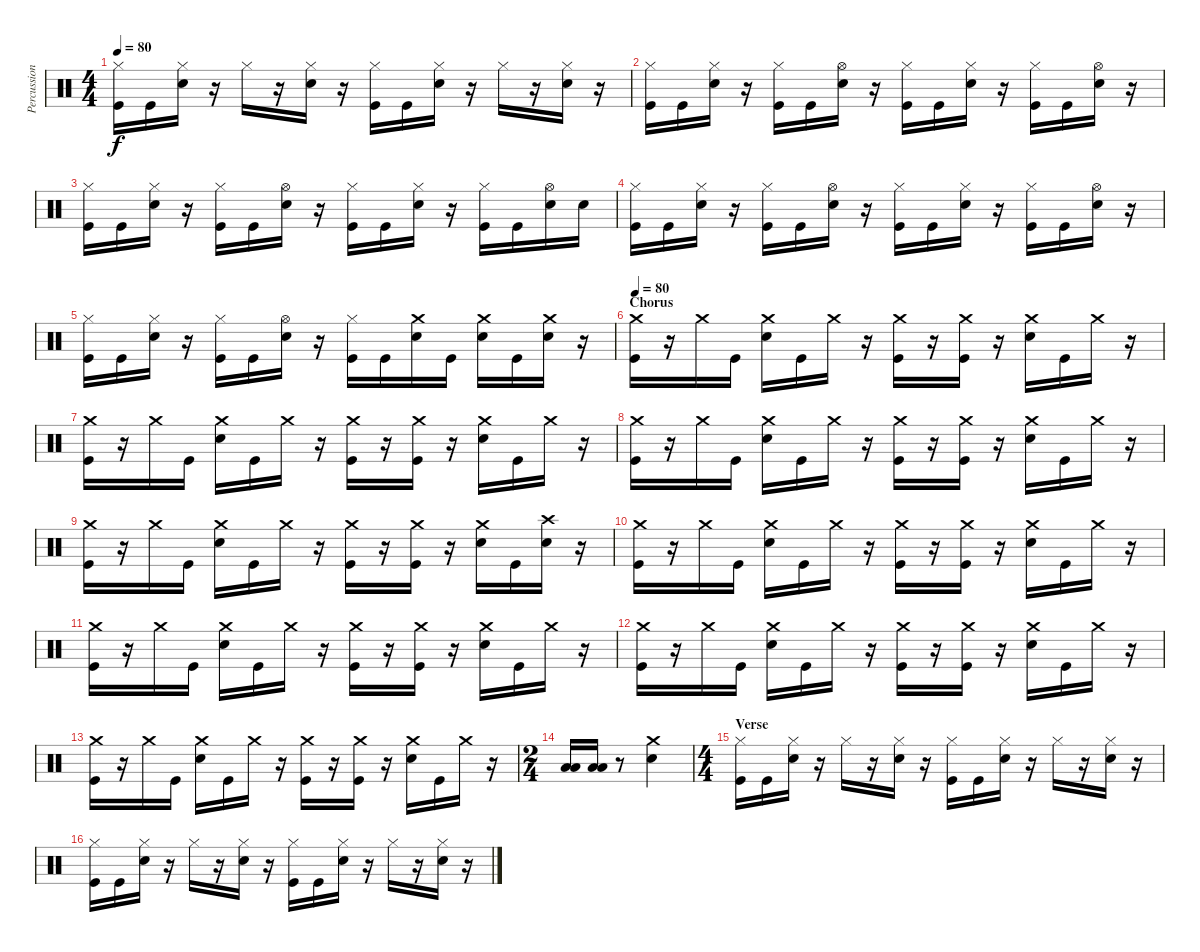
\track ("Percussion" "Percussion") {instrument percussion}
\staff {score}
\articulation defaults
\ts (4 4)
\tempo 80
\clef neutral
\ks c
("Hi-Hat (closed)" "Kick (hit)").16{dy f} "Kick (hit)".16 ("Hi-Hat (closed)" "Snare (hit) 2").16 r.16 "Hi-Hat (closed)".16 r.16 ("Hi-Hat (closed)" "Snare (hit) 2").16 r.16 ("Hi-Hat (closed)" "Kick (hit)").16 "Kick (hit)".16 ("Hi-Hat (closed)" "Snare (hit) 2").16 r.16 "Hi-Hat (closed)".16 r.16 ("Hi-Hat (closed)" "Snare (hit) 2").16 r.16 |
("Hi-Hat (closed)" "Kick (hit)").16 "Kick (hit)".16 ("Hi-Hat (closed)" "Snare (hit) 2").16 r.16 ("Hi-Hat (closed)" "Kick (hit)").16 "Kick (hit)".16 ("Hi-Hat (open)" "Snare (hit) 2").16 r.16 ("Hi-Hat (closed)" "Kick (hit)").16 "Kick (hit)".16 ("Hi-Hat (closed)" "Snare (hit) 2").16 r.16 ("Hi-Hat (closed)" "Kick (hit)").16 "Kick (hit)".16 ("Hi-Hat (open)" "Snare (hit) 2").16 r.16 |
("Hi-Hat (closed)" "Kick (hit)").16 "Kick (hit)".16 ("Hi-Hat (closed)" "Snare (hit) 2").16 r.16 ("Hi-Hat (closed)" "Kick (hit)").16 "Kick (hit)".16 ("Hi-Hat (open)" "Snare (hit) 2").16 r.16 ("Hi-Hat (closed)" "Kick (hit)").16 "Kick (hit)".16 ("Hi-Hat (closed)" "Snare (hit) 2").16 r.16 ("Hi-Hat (closed)" "Kick (hit)").16 "Kick (hit)".16 ("Hi-Hat (open)" "Snare (hit) 2").16 "Snare (hit) 2".16 |
("Hi-Hat (closed)" "Kick (hit)").16 "Kick (hit)".16 ("Hi-Hat (closed)" "Snare (hit) 2").16 r.16 ("Hi-Hat (closed)" "Kick (hit)").16 "Kick (hit)".16 ("Hi-Hat (open)" "Snare (hit) 2").16 r.16 ("Hi-Hat (closed)" "Kick (hit)").16 "Kick (hit)".16 ("Hi-Hat (closed)" "Snare (hit) 2").16 r.16 ("Hi-Hat (closed)" "Kick (hit)").16 "Kick (hit)".16 ("Hi-Hat (open)" "Snare (hit) 2").16 r.16 |
("Hi-Hat (closed)" "Kick (hit)").16 "Kick (hit)".16 ("Hi-Hat (closed)" "Snare (hit) 2").16 r.16 ("Hi-Hat (closed)" "Kick (hit)").16 "Kick (hit)".16 ("Hi-Hat (open)" "Snare (hit) 2").16 r.16 ("Hi-Hat (closed)" "Kick (hit)").16 "Kick (hit)".16 ("Crash medium (hit)" "Snare (hit) 2").16 "Kick (hit)".16 ("Crash medium (hit)" "Snare (hit) 2").16 "Kick (hit)".16 ("Crash medium (hit)" "Snare (hit) 2").16 r.16 |
\section ("" "Chorus")
\tempo 80
("Crash medium (hit)" "Kick (hit)").16 r.16 "Crash medium (hit)".16 "Kick (hit)".16 ("Crash medium (hit)" "Snare (hit) 2").16 "Kick (hit)".16 "Crash medium (hit)".16 r.16 ("Crash medium (hit)" "Kick (hit)").16 r.16 ("Crash medium (hit)" "Kick (hit)").16 r.16 ("Crash medium (hit)" "Snare (hit) 2").16 "Kick (hit)".16 "Crash medium (hit)".16 r.16 |
("Crash medium (hit)" "Kick (hit)").16 r.16 "Crash medium (hit)".16 "Kick (hit)".16 ("Crash medium (hit)" "Snare (hit) 2").16 "Kick (hit)".16 "Crash medium (hit)".16 r.16 ("Crash medium (hit)" "Kick (hit)").16 r.16 ("Crash medium (hit)" "Kick (hit)").16 r.16 ("Crash medium (hit)" "Snare (hit) 2").16 "Kick (hit)".16 "Crash medium (hit)".16 r.16 |
("Crash medium (hit)" "Kick (hit)").16 r.16 "Crash medium (hit)".16 "Kick (hit)".16 ("Crash medium (hit)" "Snare (hit) 2").16 "Kick (hit)".16 "Crash medium (hit)".16 r.16 ("Crash medium (hit)" "Kick (hit)").16 r.16 ("Crash medium (hit)" "Kick (hit)").16 r.16 ("Crash medium (hit)" "Snare (hit) 2").16 "Kick (hit)".16 "Crash medium (hit)".16 r.16 |
("Crash medium (hit)" "Kick (hit)").16 r.16 "Crash medium (hit)".16 "Kick (hit)".16 ("Crash medium (hit)" "Snare (hit) 2").16 "Kick (hit)".16 "Crash medium (hit)".16 r.16 ("Crash medium (hit)" "Kick (hit)").16 r.16 ("Crash medium (hit)" "Kick (hit)").16 r.16 ("Crash medium (hit)" "Snare (hit) 2").16 "Kick (hit)".16 ("Crash high (hit)" "Snare (hit) 2").16 r.16 |
("Crash medium (hit)" "Kick (hit)").16 r.16 "Crash medium (hit)".16 "Kick (hit)".16 ("Crash medium (hit)" "Snare (hit) 2").16 "Kick (hit)".16 "Crash medium (hit)".16 r.16 ("Crash medium (hit)" "Kick (hit)").16 r.16 ("Crash medium (hit)" "Kick (hit)").16 r.16 ("Crash medium (hit)" "Snare (hit) 2").16 "Kick (hit)".16 "Crash medium (hit)".16 r.16 |
("Crash medium (hit)" "Kick (hit)").16 r.16 "Crash medium (hit)".16 "Kick (hit)".16 ("Crash medium (hit)" "Snare (hit) 2").16 "Kick (hit)".16 "Crash medium (hit)".16 r.16 ("Crash medium (hit)" "Kick (hit)").16 r.16 ("Crash medium (hit)" "Kick (hit)").16 r.16 ("Crash medium (hit)" "Snare (hit) 2").16 "Kick (hit)".16 "Crash medium (hit)".16 r.16 |
("Crash medium (hit)" "Kick (hit)").16 r.16 "Crash medium (hit)".16 "Kick (hit)".16 ("Crash medium (hit)" "Snare (hit) 2").16 "Kick (hit)".16 "Crash medium (hit)".16 r.16 ("Crash medium (hit)" "Kick (hit)").16 r.16 ("Crash medium (hit)" "Kick (hit)").16 r.16 ("Crash medium (hit)" "Snare (hit) 2").16 "Kick (hit)".16 "Crash medium (hit)".16 r.16 |
("Crash medium (hit)" "Kick (hit)").16 r.16 "Crash medium (hit)".16 "Kick (hit)".16 ("Crash medium (hit)" "Snare (hit) 2").16 "Kick (hit)".16 "Crash medium (hit)".16 r.16 ("Crash medium (hit)" "Kick (hit)").16 r.16 ("Crash medium (hit)" "Kick (hit)").16 r.16 ("Crash medium (hit)" "Snare (hit) 2").16 "Kick (hit)".16 "Crash medium (hit)".16 r.16 |
\ts (2 4)
("Low Tom (hit)" "Low Floor Tom (hit)").16 ("Low Tom (hit)" "Low Floor Tom (hit)").16 r.8 ("Crash medium (hit)" "Snare (hit) 2").4 |
\ts (4 4)
\section ("" "Verse")
("Hi-Hat (closed)" "Kick (hit)").16 "Kick (hit)".16 ("Hi-Hat (closed)" "Snare (hit) 2").16 r.16 "Hi-Hat (closed)".16 r.16 ("Hi-Hat (closed)" "Snare (hit) 2").16 r.16 ("Hi-Hat (closed)" "Kick (hit)").16 "Kick (hit)".16 ("Hi-Hat (closed)" "Snare (hit) 2").16 r.16 "Hi-Hat (closed)".16 r.16 ("Hi-Hat (closed)" "Snare (hit) 2").16 r.16 |
("Hi-Hat (closed)" "Kick (hit)").16 "Kick (hit)".16 ("Hi-Hat (closed)" "Snare (hit) 2").16 r.16 "Hi-Hat (closed)".16 r.16 ("Hi-Hat (closed)" "Snare (hit) 2").16 r.16 ("Hi-Hat (closed)" "Kick (hit)").16 "Kick (hit)".16 ("Hi-Hat (closed)" "Snare (hit) 2").16 r.16 "Hi-Hat (closed)".16 r.16 ("Hi-Hat (closed)" "Snare (hit) 2").16 r.16
